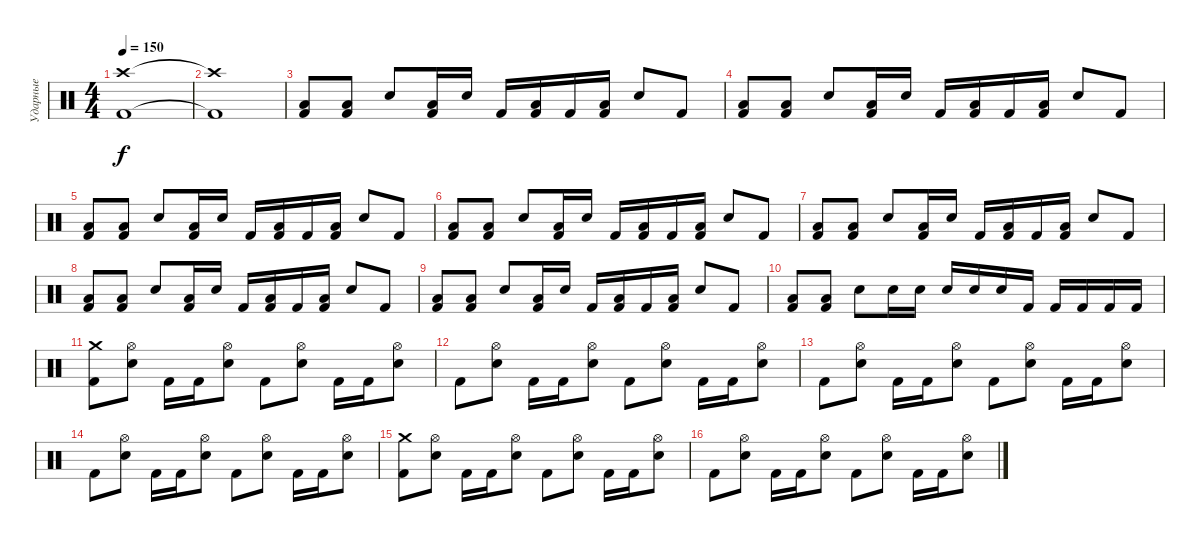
\track ("Ударные" "Ударные") {instrument percussion}
\staff {score}
\articulation defaults
\ts (4 4)
\tempo 150
\clef neutral
\ks c
("Crash high (hit)" "Kick (hit) 2").1{dy f} |
("Crash high (hit)"{t} "Kick (hit) 2"{t}).1 |
("Low Floor Tom (hit)" "Kick (hit) 2").8 ("Low Floor Tom (hit)" "Kick (hit) 2").8 "Electric Snare (hit)".8 ("Low Floor Tom (hit)" "Kick (hit) 2").16 "Electric Snare (hit)".16 "Kick (hit) 2".16 ("Low Floor Tom (hit)" "Kick (hit) 2").16 "Kick (hit) 2".16 ("Low Floor Tom (hit)" "Kick (hit) 2").16 "Electric Snare (hit)".8 "Kick (hit) 2".8 |
("Low Floor Tom (hit)" "Kick (hit) 2").8 ("Low Floor Tom (hit)" "Kick (hit) 2").8 "Electric Snare (hit)".8 ("Low Floor Tom (hit)" "Kick (hit) 2").16 "Electric Snare (hit)".16 "Kick (hit) 2".16 ("Low Floor Tom (hit)" "Kick (hit) 2").16 "Kick (hit) 2".16 ("Low Floor Tom (hit)" "Kick (hit) 2").16 "Electric Snare (hit)".8 "Kick (hit) 2".8 |
("Low Floor Tom (hit)" "Kick (hit) 2").8 ("Low Floor Tom (hit)" "Kick (hit) 2").8 "Electric Snare (hit)".8 ("Low Floor Tom (hit)" "Kick (hit) 2").16 "Electric Snare (hit)".16 "Kick (hit) 2".16 ("Low Floor Tom (hit)" "Kick (hit) 2").16 "Kick (hit) 2".16 ("Low Floor Tom (hit)" "Kick (hit) 2").16 "Electric Snare (hit)".8 "Kick (hit) 2".8 |
("Low Floor Tom (hit)" "Kick (hit) 2").8 ("Low Floor Tom (hit)" "Kick (hit) 2").8 "Electric Snare (hit)".8 ("Low Floor Tom (hit)" "Kick (hit) 2").16 "Electric Snare (hit)".16 "Kick (hit) 2".16 ("Low Floor Tom (hit)" "Kick (hit) 2").16 "Kick (hit) 2".16 ("Low Floor Tom (hit)" "Kick (hit) 2").16 "Electric Snare (hit)".8 "Kick (hit) 2".8 |
("Low Floor Tom (hit)" "Kick (hit) 2").8 ("Low Floor Tom (hit)" "Kick (hit) 2").8 "Electric Snare (hit)".8 ("Low Floor Tom (hit)" "Kick (hit) 2").16 "Electric Snare (hit)".16 "Kick (hit) 2".16 ("Low Floor Tom (hit)" "Kick (hit) 2").16 "Kick (hit) 2".16 ("Low Floor Tom (hit)" "Kick (hit) 2").16 "Electric Snare (hit)".8 "Kick (hit) 2".8 |
("Low Floor Tom (hit)" "Kick (hit) 2").8 ("Low Floor Tom (hit)" "Kick (hit) 2").8 "Electric Snare (hit)".8 ("Low Floor Tom (hit)" "Kick (hit) 2").16 "Electric Snare (hit)".16 "Kick (hit) 2".16 ("Low Floor Tom (hit)" "Kick (hit) 2").16 "Kick (hit) 2".16 ("Low Floor Tom (hit)" "Kick (hit) 2").16 "Electric Snare (hit)".8 "Kick (hit) 2".8 |
("Low Floor Tom (hit)" "Kick (hit) 2").8 ("Low Floor Tom (hit)" "Kick (hit) 2").8 "Electric Snare (hit)".8 ("Low Floor Tom (hit)" "Kick (hit) 2").16 "Electric Snare (hit)".16 "Kick (hit) 2".16 ("Low Floor Tom (hit)" "Kick (hit) 2").16 "Kick (hit) 2".16 ("Low Floor Tom (hit)" "Kick (hit) 2").16 "Electric Snare (hit)".8 "Kick (hit) 2".8 |
("Low Floor Tom (hit)" "Kick (hit) 2").8 ("Low Floor Tom (hit)" "Kick (hit) 2").8 "Electric Snare (hit)".8 "Electric Snare (hit)".16 "Electric Snare (hit)".16 "Electric Snare (hit)".16 "Electric Snare (hit)".16 "Electric Snare (hit)".16 "Kick (hit) 2".16 "Kick (hit) 2".16 "Kick (hit) 2".16 "Kick (hit) 2".16 "Kick (hit) 2".16 |
("Crash medium (hit)" "Kick (hit) 2").8 ("Hi-Hat (open)" "Electric Snare (hit)").8 "Kick (hit) 2".16 "Kick (hit) 2".16 ("Hi-Hat (open)" "Electric Snare (hit)").8 "Kick (hit) 2".8 ("Hi-Hat (open)" "Electric Snare (hit)").8 "Kick (hit) 2".16 "Kick (hit) 2".16 ("Hi-Hat (open)" "Electric Snare (hit)").8 |
"Kick (hit) 2".8 ("Hi-Hat (open)" "Electric Snare (hit)").8 "Kick (hit) 2".16 "Kick (hit) 2".16 ("Hi-Hat (open)" "Electric Snare (hit)").8 "Kick (hit) 2".8 ("Hi-Hat (open)" "Electric Snare (hit)").8 "Kick (hit) 2".16 "Kick (hit) 2".16 ("Hi-Hat (open)" "Electric Snare (hit)").8 |
"Kick (hit) 2".8 ("Hi-Hat (open)" "Electric Snare (hit)").8 "Kick (hit) 2".16 "Kick (hit) 2".16 ("Hi-Hat (open)" "Electric Snare (hit)").8 "Kick (hit) 2".8 ("Hi-Hat (open)" "Electric Snare (hit)").8 "Kick (hit) 2".16 "Kick (hit) 2".16 ("Hi-Hat (open)" "Electric Snare (hit)").8 |
"Kick (hit) 2".8 ("Hi-Hat (open)" "Electric Snare (hit)").8 "Kick (hit) 2".16 "Kick (hit) 2".16 ("Hi-Hat (open)" "Electric Snare (hit)").8 "Kick (hit) 2".8 ("Hi-Hat (open)" "Electric Snare (hit)").8 "Kick (hit) 2".16 "Kick (hit) 2".16 ("Hi-Hat (open)" "Electric Snare (hit)").8 |
("Crash medium (hit)" "Kick (hit) 2").8 ("Hi-Hat (open)" "Electric Snare (hit)").8 "Kick (hit) 2".16 "Kick (hit) 2".16 ("Hi-Hat (open)" "Electric Snare (hit)").8 "Kick (hit) 2".8 ("Hi-Hat (open)" "Electric Snare (hit)").8 "Kick (hit) 2".16 "Kick (hit) 2".16 ("Hi-Hat (open)" "Electric Snare (hit)").8 |
"Kick (hit) 2".8 ("Hi-Hat (open)" "Electric Snare (hit)").8 "Kick (hit) 2".16 "Kick (hit) 2".16 ("Hi-Hat (open)" "Electric Snare (hit)").8 "Kick (hit) 2".8 ("Hi-Hat (open)" "Electric Snare (hit)").8 "Kick (hit) 2".16 "Kick (hit) 2".16 ("Hi-Hat (open)" "Electric Snare (hit)").8
